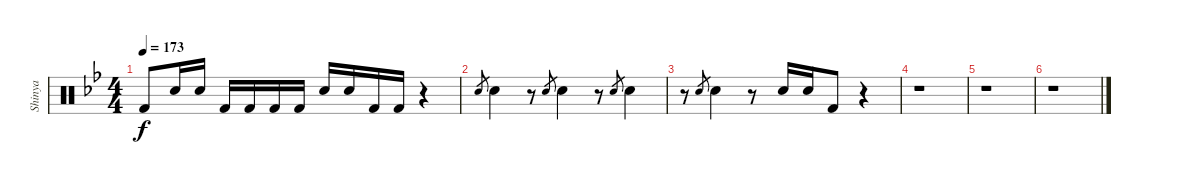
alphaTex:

\track ("Shinya" "Shinya") {instrument percussion}
\staff {score}
\articulation defaults
\ts (4 4)
\tempo 173
\clef neutral
\ks bb "Kick (hit) 2".8{dy f} "Snare (hit) 2".16 "Snare (hit) 2".16 "Kick (hit) 2".16 "Kick (hit) 2".16 "Kick (hit) 2".16 "Kick (hit) 2".16 "Snare (hit) 2".16 "Snare (hit) 2".16 "Kick (hit) 2".16 "Kick (hit) 2".16
r.4 |
"Snare (hit) 2".8{gr} "Snare (hit) 2".4 r.8 "Snare (hit) 2".8{gr} "Snare (hit) 2".4 r.8 "Snare (hit) 2".8{gr} "Snare (hit) 2".4 |
r.8 "Snare (hit) 2".8{gr} "Snare (hit) 2".4 r.8 "Snare (hit) 2".16 "Snare (hit) 2".16 "Kick (hit) 2".8 r.4 |
r.1 |
r.1 |
r.1
